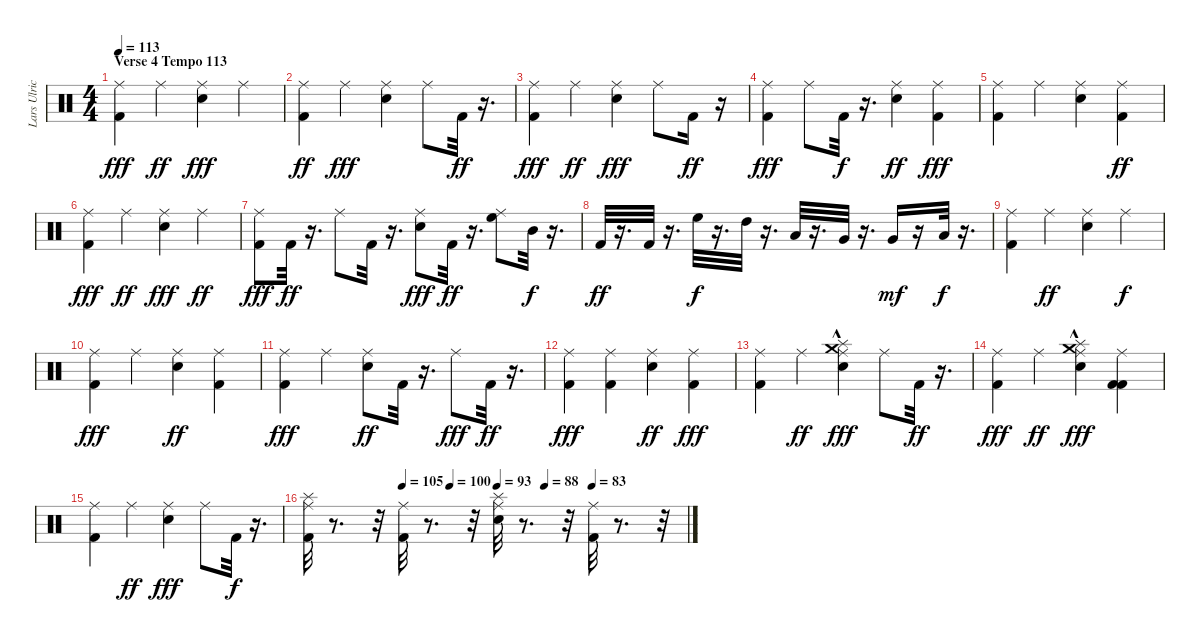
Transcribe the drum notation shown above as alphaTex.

\track ("Lars Ulrich" "Lars Ulric") {instrument percussion}
\staff {score}
\articulation defaults
\ts (4 4)
\section ("" "Verse 4 Tempo 113")
\tempo 113
\clef neutral
\ks c
("Kick (hit) 2" "Ride (middle)").4{dy fff} "Ride (middle)".4{dy ff} ("Snare (hit) 2" "Ride (middle)").4{dy fff} "Ride (middle)".4 |
("Kick (hit) 2" "Ride (middle)").4{dy ff} "Ride (middle)".4{dy fff} ("Snare (hit) 2" "Ride (middle)").4 "Ride (middle)".8 "Kick (hit) 2".32{dy ff} r.16{d} |
("Kick (hit) 2" "Ride (middle)").4{dy fff} "Ride (middle)".4{dy ff} ("Snare (hit) 2" "Ride (middle)").4{dy fff} "Ride (middle)".8 "Kick (hit) 2".16{dy ff} r.16 |
("Kick (hit) 2" "Ride (middle)").4{dy fff} "Ride (middle)".8 "Kick (hit) 2".32{dy f} r.16{d} ("Snare (hit) 2" "Ride (middle)").4{dy ff} ("Kick (hit) 2" "Ride (middle)").4{dy fff} |
("Kick (hit) 2" "Ride (middle)").4 "Ride (middle)".4 ("Snare (hit) 2" "Ride (middle)").4 ("Kick (hit) 2" "Ride (middle)").4{dy ff} |
("Kick (hit) 2" "Ride (middle)").4{dy fff} "Ride (middle)".4{dy ff} ("Snare (hit) 2" "Ride (middle)").4{dy fff} "Ride (middle)".4{dy ff} |
("Kick (hit) 2" "Ride (middle)").8{dy fff} "Kick (hit) 2".32{dy ff} r.16{d} "Ride (middle)".8 "Kick (hit) 2".32 r.16{d} ("Snare (hit) 2" "Ride (middle)").8{dy fff} "Kick (hit) 2".32{dy ff} r.16{d} ("High Floor Tom (hit)" "Ride (middle)").8 "Mid Tom (hit)".32{dy f} r.16{d} |
"Kick (hit) 2".32{dy ff} r.16{d} "Kick (hit) 2".32 r.16{d} "High Floor Tom (hit)".32{dy f} r.16{d} "High Tom (hit)".32 r.16{d} "Low Tom (hit)".32 r.16{d} "Very Low Tom (hit)".32 r.16{d} "Very Low Tom (hit)".16{dy mf} r.16 "Low Floor Tom (hit)".32{dy f} r.16{d} |
("Kick (hit) 2" "Ride (middle)").4 "Ride (middle)".4{dy ff} ("Snare (hit) 2" "Ride (middle)").4 "Ride (middle)".4{dy f} |
("Kick (hit) 2" "Ride (middle)").4{dy fff} "Ride (middle)".4 ("Snare (hit) 2" "Ride (middle)").4{dy ff} ("Kick (hit) 2" "Ride (middle)").4 |
("Kick (hit) 2" "Ride (middle)").4{dy fff} "Ride (middle)".4 ("Ride (middle)" "Snare (hit) 2").8{dy ff} "Kick (hit) 2".32 r.16{d} "Ride (middle)".8{dy fff} "Kick (hit) 2".32{dy ff} r.16{d} |
("Kick (hit) 2" "Ride (middle)").4{dy fff} ("Kick (hit) 2" "Ride (middle)").4 ("Snare (hit) 2" "Ride (middle)").4{dy ff} ("Kick (hit) 2" "Ride (middle)").4{dy fff} |
("Kick (hit) 2" "Ride (middle)").4 "Ride (middle)".4{dy ff} ("Crash medium (hit)" "Splash (hit)"{hac} "Snare (hit) 2" "Ride (middle)").4{dy fff} "Ride (middle)".8 "Kick (hit) 2".32{dy ff} r.16{d} |
("Kick (hit) 2" "Ride (middle)").4{dy fff} "Ride (middle)".4{dy ff} ("Splash (hit)"{hac} "Crash medium (hit)" "Snare (hit) 2" "Ride (middle)").4{dy fff} ("Kick (hit) 2" "Kick (hit) 2" "Ride (middle)").4 |
("Kick (hit) 2" "Ride (middle)").4 "Ride (middle)".4{dy ff} ("Snare (hit) 2" "Ride (middle)").4{dy fff} "Ride (middle)".8 "Kick (hit) 2".32{dy f} r.16{d} |
\tempo (105 0.25)
\tempo (100 0.375)
\tempo (93 0.5)
\tempo (88 0.625)
\tempo (83 0.75)
("Splash (hit)" "Kick (hit) 2" "Ride (middle)").32 r.8{d} r.32 ("Kick (hit) 2" "Ride (middle)").32 r.8{d} r.32 ("Splash (hit)" "Snare (hit) 2" "Ride (middle)").32 r.8{d} r.32 ("Kick (hit) 2" "Ride (middle)").32 r.8{d} r.32
